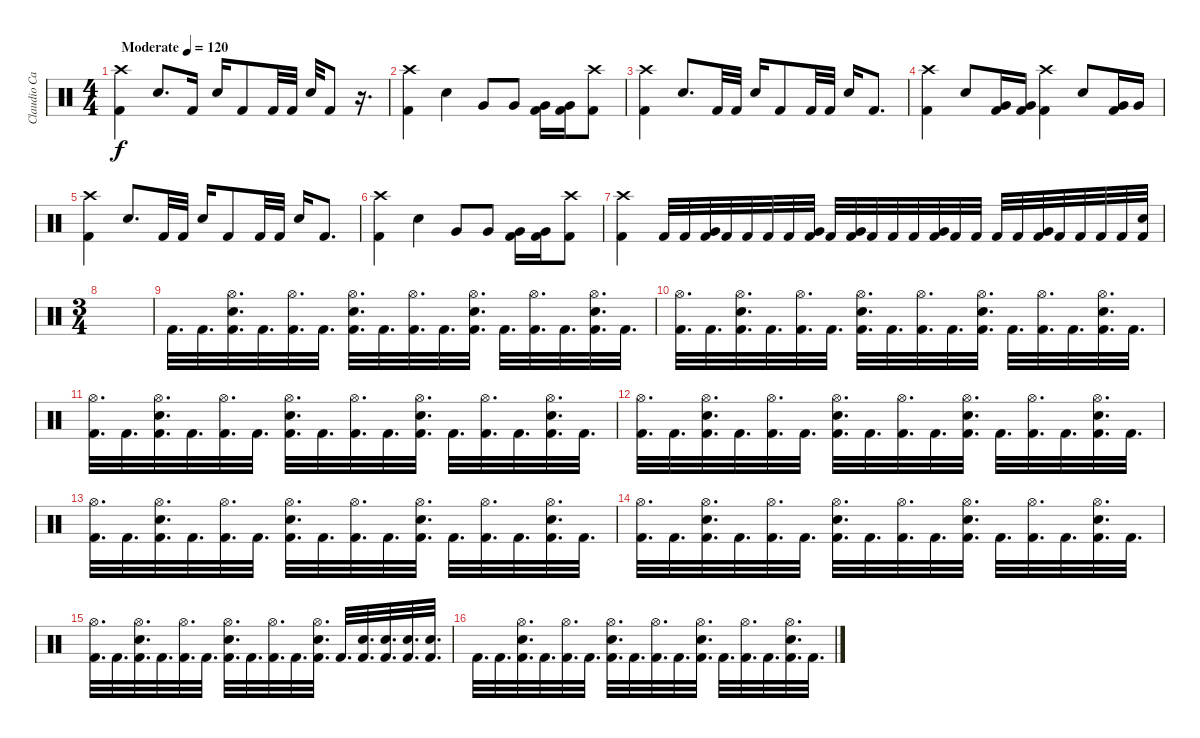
\track ("Claudio Cardacci" "Claudio Ca") {instrument percussion}
\staff {score}
\articulation defaults
\ts (4 4)
\tempo (120 "Moderate")
\clef neutral
\ks c
("Crash high (hit)" "Kick (hit) 2").4{dy f} "Snare (hit) 2".8{d} "Kick (hit) 2".16 "Snare (hit) 2".16 "Kick (hit) 2".8 "Kick (hit) 2".32 "Kick (hit) 2".32 "Snare (hit) 2".32 "Kick (hit) 2".8 r.16{d} |
("Crash high (hit)" "Kick (hit) 2").4 "Snare (hit) 2".4 "Very Low Tom (hit)".8 "Very Low Tom (hit)".8 ("Very Low Tom (hit)" "Kick (hit) 2").16 ("Very Low Tom (hit)" "Kick (hit) 2").16 ("Crash high (hit)" "Kick (hit) 2").8 |
("Crash high (hit)" "Kick (hit) 2").4 "Snare (hit) 2".8{d} "Kick (hit) 2".32 "Kick (hit) 2".32 "Snare (hit) 2".16 "Kick (hit) 2".8 "Kick (hit) 2".32 "Kick (hit) 2".32 "Snare (hit) 2".16 "Kick (hit) 2".8{d} |
("Crash high (hit)" "Kick (hit) 2").4 "Snare (hit) 2".8 ("Very Low Tom (hit)" "Kick (hit) 2").16 ("Very Low Tom (hit)" "Kick (hit) 2").16 ("Crash high (hit)" "Kick (hit) 2").4 "Snare (hit) 2".8 ("Very Low Tom (hit)" "Kick (hit) 2").16 "Very Low Tom (hit)".16 |
("Crash high (hit)" "Kick (hit) 2").4 "Snare (hit) 2".8{d} "Kick (hit) 2".32 "Kick (hit) 2".32 "Snare (hit) 2".16 "Kick (hit) 2".8 "Kick (hit) 2".32 "Kick (hit) 2".32 "Snare (hit) 2".16 "Kick (hit) 2".8{d} |
("Crash high (hit)" "Kick (hit) 2").4 "Snare (hit) 2".4 "Very Low Tom (hit)".8 "Very Low Tom (hit)".8 ("Very Low Tom (hit)" "Kick (hit) 2").16 ("Very Low Tom (hit)" "Kick (hit) 2").16 ("Crash high (hit)" "Kick (hit) 2").8 |
("Crash high (hit)" "Kick (hit) 2").4 "Kick (hit) 2".32 "Kick (hit) 2".32 ("Very Low Tom (hit)" "Kick (hit) 2").32 "Kick (hit) 2".32 "Kick (hit) 2".32 "Kick (hit) 2".32 "Kick (hit) 2".32 ("Very Low Tom (hit)" "Kick (hit) 2").32 "Kick (hit) 2".32 ("Very Low Tom (hit)" "Kick (hit) 2").32 "Kick (hit) 2".32 "Kick (hit) 2".32 "Kick (hit) 2".32 ("Very Low Tom (hit)" "Kick (hit) 2").32 "Kick (hit) 2".32 "Kick (hit) 2".32 "Kick (hit) 2".32 "Kick (hit) 2".32 ("Very Low Tom (hit)" "Kick (hit) 2").32 "Kick (hit) 2".32 "Kick (hit) 2".32 "Kick (hit) 2".32 "Kick (hit) 2".32 ("Snare (hit) 2" "Kick (hit) 2").32 |
\ts (3 4)
|
"Kick (hit) 2".32{d} "Kick (hit) 2".32{d} ("Snare (hit) 2" "Hi-Hat (open)" "Kick (hit) 2").32{d} "Kick (hit) 2".32{d} ("Hi-Hat (open)" "Kick (hit) 2").32{d} "Kick (hit) 2".32{d} ("Snare (hit) 2" "Hi-Hat (open)" "Kick (hit) 2").32{d} "Kick (hit) 2".32{d} ("Hi-Hat (open)" "Kick (hit) 2").32{d} "Kick (hit) 2".32{d} ("Snare (hit) 2" "Hi-Hat (open)" "Kick (hit) 2").32{d} "Kick (hit) 2".32{d} ("Hi-Hat (open)" "Kick (hit) 2").32{d} "Kick (hit) 2".32{d} ("Snare (hit) 2" "Hi-Hat (open)" "Kick (hit) 2").32{d} "Kick (hit) 2".32{d} |
("Hi-Hat (open)" "Kick (hit) 2").32{d} "Kick (hit) 2".32{d} ("Snare (hit) 2" "Hi-Hat (open)" "Kick (hit) 2").32{d} "Kick (hit) 2".32{d} ("Hi-Hat (open)" "Kick (hit) 2").32{d} "Kick (hit) 2".32{d} ("Snare (hit) 2" "Hi-Hat (open)" "Kick (hit) 2").32{d} "Kick (hit) 2".32{d} ("Hi-Hat (open)" "Kick (hit) 2").32{d} "Kick (hit) 2".32{d} ("Snare (hit) 2" "Hi-Hat (open)" "Kick (hit) 2").32{d} "Kick (hit) 2".32{d} ("Hi-Hat (open)" "Kick (hit) 2").32{d} "Kick (hit) 2".32{d} ("Snare (hit) 2" "Hi-Hat (open)" "Kick (hit) 2").32{d} "Kick (hit) 2".32{d} |
("Hi-Hat (open)" "Kick (hit) 2").32{d} "Kick (hit) 2".32{d} ("Snare (hit) 2" "Hi-Hat (open)" "Kick (hit) 2").32{d} "Kick (hit) 2".32{d} ("Hi-Hat (open)" "Kick (hit) 2").32{d} "Kick (hit) 2".32{d} ("Snare (hit) 2" "Hi-Hat (open)" "Kick (hit) 2").32{d} "Kick (hit) 2".32{d} ("Hi-Hat (open)" "Kick (hit) 2").32{d} "Kick (hit) 2".32{d} ("Snare (hit) 2" "Hi-Hat (open)" "Kick (hit) 2").32{d} "Kick (hit) 2".32{d} ("Hi-Hat (open)" "Kick (hit) 2").32{d} "Kick (hit) 2".32{d} ("Snare (hit) 2" "Hi-Hat (open)" "Kick (hit) 2").32{d} "Kick (hit) 2".32{d} |
("Hi-Hat (open)" "Kick (hit) 2").32{d} "Kick (hit) 2".32{d} ("Snare (hit) 2" "Hi-Hat (open)" "Kick (hit) 2").32{d} "Kick (hit) 2".32{d} ("Hi-Hat (open)" "Kick (hit) 2").32{d} "Kick (hit) 2".32{d} ("Snare (hit) 2" "Hi-Hat (open)" "Kick (hit) 2").32{d} "Kick (hit) 2".32{d} ("Hi-Hat (open)" "Kick (hit) 2").32{d} "Kick (hit) 2".32{d} ("Snare (hit) 2" "Hi-Hat (open)" "Kick (hit) 2").32{d} "Kick (hit) 2".32{d} ("Hi-Hat (open)" "Kick (hit) 2").32{d} "Kick (hit) 2".32{d} ("Snare (hit) 2" "Hi-Hat (open)" "Kick (hit) 2").32{d} "Kick (hit) 2".32{d} |
("Hi-Hat (open)" "Kick (hit) 2").32{d} "Kick (hit) 2".32{d} ("Snare (hit) 2" "Hi-Hat (open)" "Kick (hit) 2").32{d} "Kick (hit) 2".32{d} ("Hi-Hat (open)" "Kick (hit) 2").32{d} "Kick (hit) 2".32{d} ("Snare (hit) 2" "Hi-Hat (open)" "Kick (hit) 2").32{d} "Kick (hit) 2".32{d} ("Hi-Hat (open)" "Kick (hit) 2").32{d} "Kick (hit) 2".32{d} ("Snare (hit) 2" "Hi-Hat (open)" "Kick (hit) 2").32{d} "Kick (hit) 2".32{d} ("Hi-Hat (open)" "Kick (hit) 2").32{d} "Kick (hit) 2".32{d} ("Snare (hit) 2" "Hi-Hat (open)" "Kick (hit) 2").32{d} "Kick (hit) 2".32{d} |
("Hi-Hat (open)" "Kick (hit) 2").32{d} "Kick (hit) 2".32{d} ("Snare (hit) 2" "Hi-Hat (open)" "Kick (hit) 2").32{d} "Kick (hit) 2".32{d} ("Hi-Hat (open)" "Kick (hit) 2").32{d} "Kick (hit) 2".32{d} ("Snare (hit) 2" "Hi-Hat (open)" "Kick (hit) 2").32{d} "Kick (hit) 2".32{d} ("Hi-Hat (open)" "Kick (hit) 2").32{d} "Kick (hit) 2".32{d} ("Snare (hit) 2" "Hi-Hat (open)" "Kick (hit) 2").32{d} "Kick (hit) 2".32{d} ("Hi-Hat (open)" "Kick (hit) 2").32{d} "Kick (hit) 2".32{d} ("Snare (hit) 2" "Hi-Hat (open)" "Kick (hit) 2").32{d} "Kick (hit) 2".32{d} |
("Hi-Hat (open)" "Kick (hit) 2").32{d} "Kick (hit) 2".32{d} ("Snare (hit) 2" "Hi-Hat (open)" "Kick (hit) 2").32{d} "Kick (hit) 2".32{d} ("Hi-Hat (open)" "Kick (hit) 2").32{d} "Kick (hit) 2".32{d} ("Snare (hit) 2" "Hi-Hat (open)" "Kick (hit) 2").32{d} "Kick (hit) 2".32{d} ("Hi-Hat (open)" "Kick (hit) 2").32{d} "Kick (hit) 2".32{d} ("Snare (hit) 2" "Hi-Hat (open)" "Kick (hit) 2").32{d} "Kick (hit) 2".32{d} ("Snare (hit) 2" "Kick (hit) 2").32{d} ("Snare (hit) 2" "Kick (hit) 2").32{d} ("Snare (hit) 2" "Kick (hit) 2").32{d} ("Snare (hit) 2" "Kick (hit) 2").32{d} |
"Kick (hit) 2".32{d} "Kick (hit) 2".32{d} ("Snare (hit) 2" "Hi-Hat (open)" "Kick (hit) 2").32{d} "Kick (hit) 2".32{d} ("Hi-Hat (open)" "Kick (hit) 2").32{d} "Kick (hit) 2".32{d} ("Snare (hit) 2" "Hi-Hat (open)" "Kick (hit) 2").32{d} "Kick (hit) 2".32{d} ("Hi-Hat (open)" "Kick (hit) 2").32{d} "Kick (hit) 2".32{d} ("Snare (hit) 2" "Hi-Hat (open)" "Kick (hit) 2").32{d} "Kick (hit) 2".32{d} ("Hi-Hat (open)" "Kick (hit) 2").32{d} "Kick (hit) 2".32{d} ("Snare (hit) 2" "Hi-Hat (open)" "Kick (hit) 2").32{d} "Kick (hit) 2".32{d}
